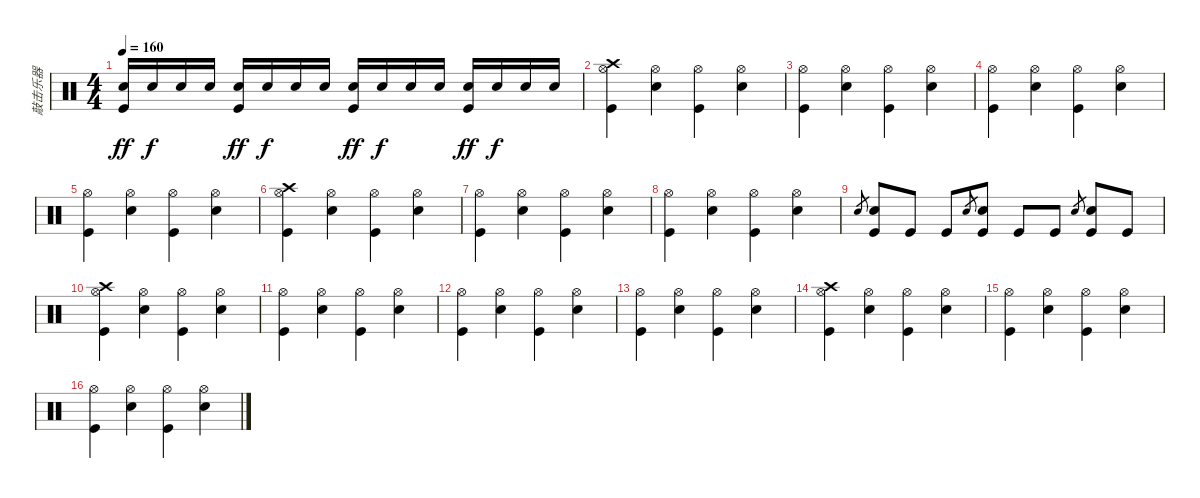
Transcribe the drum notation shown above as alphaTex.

\track ("敲击乐器" "敲击乐器") {instrument percussion}
\staff {score}
\articulation defaults
\ts (4 4)
\tempo 160
\clef neutral
\ks c
("Snare (hit) 2" "Kick (hit)").16{dy ff} "Snare (hit) 2".16{dy f} "Snare (hit) 2".16 "Snare (hit) 2".16 ("Snare (hit) 2" "Kick (hit)").16{dy ff} "Snare (hit) 2".16{dy f} "Snare (hit) 2".16 "Snare (hit) 2".16 ("Snare (hit) 2" "Kick (hit)").16{dy ff} "Snare (hit) 2".16{dy f} "Snare (hit) 2".16 "Snare (hit) 2".16 ("Snare (hit) 2" "Kick (hit)").16{dy ff} "Snare (hit) 2".16{dy f} "Snare (hit) 2".16 "Snare (hit) 2".16 |
("Crash high (hit)" "Hi-Hat (open)" "Kick (hit)").4 ("Snare (hit) 2" "Hi-Hat (open)").4 ("Hi-Hat (open)" "Kick (hit)").4 ("Snare (hit) 2" "Hi-Hat (open)").4 |
("Hi-Hat (open)" "Kick (hit)").4 ("Snare (hit) 2" "Hi-Hat (open)").4 ("Hi-Hat (open)" "Kick (hit)").4 ("Snare (hit) 2" "Hi-Hat (open)").4 |
("Hi-Hat (open)" "Kick (hit)").4 ("Snare (hit) 2" "Hi-Hat (open)").4 ("Hi-Hat (open)" "Kick (hit)").4 ("Snare (hit) 2" "Hi-Hat (open)").4 |
("Hi-Hat (open)" "Kick (hit)").4 ("Snare (hit) 2" "Hi-Hat (open)").4 ("Hi-Hat (open)" "Kick (hit)").4 ("Snare (hit) 2" "Hi-Hat (open)").4 |
("Crash high (hit)" "Hi-Hat (open)" "Kick (hit)").4 ("Snare (hit) 2" "Hi-Hat (open)").4 ("Hi-Hat (open)" "Kick (hit)").4 ("Snare (hit) 2" "Hi-Hat (open)").4 |
("Hi-Hat (open)" "Kick (hit)").4 ("Snare (hit) 2" "Hi-Hat (open)").4 ("Hi-Hat (open)" "Kick (hit)").4 ("Snare (hit) 2" "Hi-Hat (open)").4 |
("Hi-Hat (open)" "Kick (hit)").4 ("Snare (hit) 2" "Hi-Hat (open)").4 ("Hi-Hat (open)" "Kick (hit)").4 ("Snare (hit) 2" "Hi-Hat (open)").4 |
"Snare (hit) 2".8{gr} ("Snare (hit) 2" "Kick (hit)").8 "Kick (hit)".8 "Kick (hit)".8 "Snare (hit) 2".8{gr} ("Snare (hit) 2" "Kick (hit)").8 "Kick (hit)".8 "Kick (hit)".8 "Snare (hit) 2".8{gr} ("Snare (hit) 2" "Kick (hit)").8 "Kick (hit)".8 |
("Crash high (hit)" "Hi-Hat (open)" "Kick (hit)").4 ("Snare (hit) 2" "Hi-Hat (open)").4 ("Hi-Hat (open)" "Kick (hit)").4 ("Snare (hit) 2" "Hi-Hat (open)").4 |
("Hi-Hat (open)" "Kick (hit)").4 ("Snare (hit) 2" "Hi-Hat (open)").4 ("Hi-Hat (open)" "Kick (hit)").4 ("Snare (hit) 2" "Hi-Hat (open)").4 |
("Hi-Hat (open)" "Kick (hit)").4 ("Snare (hit) 2" "Hi-Hat (open)").4 ("Hi-Hat (open)" "Kick (hit)").4 ("Snare (hit) 2" "Hi-Hat (open)").4 |
("Hi-Hat (open)" "Kick (hit)").4 ("Snare (hit) 2" "Hi-Hat (open)").4 ("Hi-Hat (open)" "Kick (hit)").4 ("Snare (hit) 2" "Hi-Hat (open)").4 |
("Crash high (hit)" "Hi-Hat (open)" "Kick (hit)").4 ("Snare (hit) 2" "Hi-Hat (open)").4 ("Hi-Hat (open)" "Kick (hit)").4 ("Snare (hit) 2" "Hi-Hat (open)").4 |
("Hi-Hat (open)" "Kick (hit)").4 ("Snare (hit) 2" "Hi-Hat (open)").4 ("Hi-Hat (open)" "Kick (hit)").4 ("Snare (hit) 2" "Hi-Hat (open)").4 |
("Hi-Hat (open)" "Kick (hit)").4 ("Snare (hit) 2" "Hi-Hat (open)").4 ("Hi-Hat (open)" "Kick (hit)").4 ("Snare (hit) 2" "Hi-Hat (open)").4
